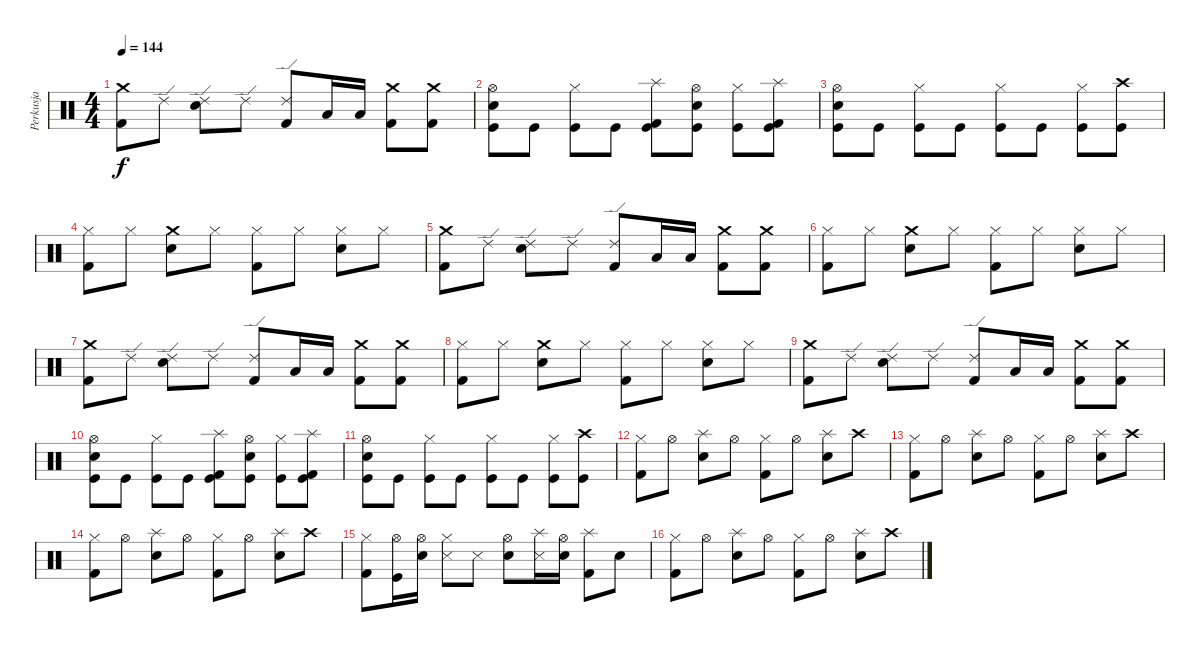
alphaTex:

\track ("Perkusja" "Perkusja") {instrument percussion}
\staff {score}
\articulation defaults
\ts (4 4)
\tempo 144
\clef neutral
\ks c
("Crash medium (hit)" "Kick (hit) 2").8{dy f} "Ride (edge) 2".8 ("Snare (hit) 2" "Ride (edge) 2").8 "Ride (edge) 2".8 ("Ride (edge) 2" "Kick (hit) 2").8 "Low Tom (hit)".16 "Low Tom (hit)".16 ("Crash medium (hit)" "Kick (hit) 2").8 ("Crash medium (hit)" "Kick (hit) 2").8 |
("Kick (hit)" "Snare (hit) 2" "Hi-Hat (open)").8 "Kick (hit)".8 ("Kick (hit)" "Hi-Hat (closed)").8 "Kick (hit)".8 ("Kick (hit)" "Splash (hit)" "Kick (hit) 2").8 ("Kick (hit)" "Hi-Hat (open)" "Snare (hit) 2").8 ("Kick (hit)" "Hi-Hat (closed)").8 ("Kick (hit)" "Splash (hit)" "Kick (hit) 2").8 |
("Kick (hit)" "Snare (hit) 2" "Hi-Hat (open)").8 "Kick (hit)".8 ("Kick (hit)" "Hi-Hat (closed)").8 "Kick (hit)".8 ("Kick (hit)" "Hi-Hat (closed)").8 "Kick (hit)".8 ("Kick (hit)" "Hi-Hat (closed)").8 ("Kick (hit)" "Crash high (hit)").8 |
("Hi-Hat (closed)" "Kick (hit) 2").8 "Hi-Hat (closed)".8 ("Crash medium (hit)" "Snare (hit) 2").8 "Hi-Hat (closed)".8 ("Hi-Hat (closed)" "Kick (hit) 2").8 "Hi-Hat (closed)".8 ("Snare (hit) 2" "Hi-Hat (closed)").8 "Hi-Hat (closed)".8 |
("Crash medium (hit)" "Kick (hit) 2").8 "Ride (edge) 2".8 ("Snare (hit) 2" "Ride (edge) 2").8 "Ride (edge) 2".8 ("Ride (edge) 2" "Kick (hit) 2").8 "Low Tom (hit)".16 "Low Tom (hit)".16 ("Crash medium (hit)" "Kick (hit) 2").8 ("Crash medium (hit)" "Kick (hit) 2").8 |
("Hi-Hat (closed)" "Kick (hit) 2").8 "Hi-Hat (closed)".8 ("Crash medium (hit)" "Snare (hit) 2").8 "Hi-Hat (closed)".8 ("Hi-Hat (closed)" "Kick (hit) 2").8 "Hi-Hat (closed)".8 ("Snare (hit) 2" "Hi-Hat (closed)").8 "Hi-Hat (closed)".8 |
("Crash medium (hit)" "Kick (hit) 2").8 "Ride (edge) 2".8 ("Snare (hit) 2" "Ride (edge) 2").8 "Ride (edge) 2".8 ("Ride (edge) 2" "Kick (hit) 2").8 "Low Tom (hit)".16 "Low Tom (hit)".16 ("Crash medium (hit)" "Kick (hit) 2").8 ("Crash medium (hit)" "Kick (hit) 2").8 |
("Hi-Hat (closed)" "Kick (hit) 2").8 "Hi-Hat (closed)".8 ("Crash medium (hit)" "Snare (hit) 2").8 "Hi-Hat (closed)".8 ("Hi-Hat (closed)" "Kick (hit) 2").8 "Hi-Hat (closed)".8 ("Snare (hit) 2" "Hi-Hat (closed)").8 "Hi-Hat (closed)".8 |
("Crash medium (hit)" "Kick (hit) 2").8 "Ride (edge) 2".8 ("Snare (hit) 2" "Ride (edge) 2").8 "Ride (edge) 2".8 ("Ride (edge) 2" "Kick (hit) 2").8 "Low Tom (hit)".16 "Low Tom (hit)".16 ("Crash medium (hit)" "Kick (hit) 2").8 ("Crash medium (hit)" "Kick (hit) 2").8 |
("Kick (hit)" "Snare (hit) 2" "Hi-Hat (open)").8 "Kick (hit)".8 ("Kick (hit)" "Hi-Hat (closed)").8 "Kick (hit)".8 ("Kick (hit)" "Splash (hit)" "Kick (hit) 2").8 ("Kick (hit)" "Hi-Hat (open)" "Snare (hit) 2").8 ("Kick (hit)" "Hi-Hat (closed)").8 ("Kick (hit)" "Splash (hit)" "Kick (hit) 2").8 |
("Kick (hit)" "Snare (hit) 2" "Hi-Hat (open)").8 "Kick (hit)".8 ("Kick (hit)" "Hi-Hat (closed)").8 "Kick (hit)".8 ("Kick (hit)" "Hi-Hat (closed)").8 "Kick (hit)".8 ("Kick (hit)" "Hi-Hat (closed)").8 ("Kick (hit)" "Crash high (hit)").8 |
("Kick (hit) 2" "Hi-Hat (closed)").8 "Hi-Hat (open)".8 ("Snare (hit) 2" "Splash (hit)").8 "Hi-Hat (open)".8 ("Kick (hit) 2" "Hi-Hat (closed)").8 "Hi-Hat (open)".8 ("Snare (hit) 2" "Splash (hit)").8 "Crash high (hit)".8 |
("Kick (hit) 2" "Hi-Hat (closed)").8 "Hi-Hat (open)".8 ("Snare (hit) 2" "Splash (hit)").8 "Hi-Hat (open)".8 ("Kick (hit) 2" "Hi-Hat (closed)").8 "Hi-Hat (open)".8 ("Snare (hit) 2" "Splash (hit)").8 "Crash high (hit)".8 |
("Kick (hit) 2" "Hi-Hat (closed)").8 "Hi-Hat (open)".8 ("Snare (hit) 2" "Splash (hit)").8 "Hi-Hat (open)".8 ("Kick (hit) 2" "Hi-Hat (closed)").8 "Hi-Hat (open)".8 ("Snare (hit) 2" "Splash (hit)").8 "Crash high (hit)".8 |
("Kick (hit) 2" "Hi-Hat (closed)").8 ("Hi-Hat (open)" "Kick (hit)").16 ("Snare (hit) 2" "Hi-Hat (open)").16 ("Snare (side stick) 3" "Hi-Hat (closed)").8 "Snare (side stick) 3".8 ("Snare (hit) 2" "Hi-Hat (open)").8 ("Snare (side stick) 3" "Splash (hit)").16 ("Snare (hit) 2" "Hi-Hat (open)").16 ("Kick (hit) 2" "Splash (hit)").8 "Snare (hit) 2".8 |
("Kick (hit) 2" "Hi-Hat (closed)").8 "Hi-Hat (open)".8 ("Snare (hit) 2" "Splash (hit)").8 "Hi-Hat (open)".8 ("Kick (hit) 2" "Hi-Hat (closed)").8 "Hi-Hat (open)".8 ("Snare (hit) 2" "Splash (hit)").8 "Crash high (hit)".8
